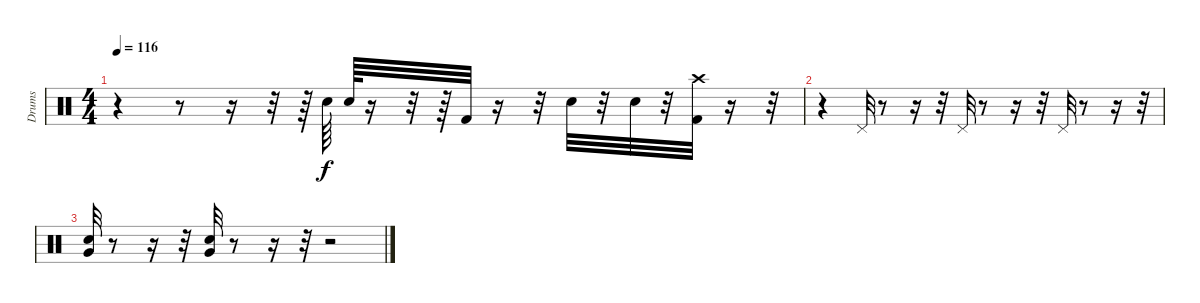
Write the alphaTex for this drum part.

\track ("Drums" "Drums") {instrument percussion}
\staff {score}
\articulation defaults
\ts (4 4)
\tempo 116
\clef neutral
\ks c
r.4{dy f} r.8 r.16 r.32 r.64 "Snare (hit) 2".64 "Snare (hit) 2".64 r.16 r.32 r.64 "Kick (hit) 2".32 r.16 r.32 "Snare (hit) 2".32 r.32 "Snare (hit) 2".32 r.32 ("Kick (hit) 2" "Crash high (hit)").32 r.16 r.32 |
r.4 "Pedal Hi-Hat (hit)".32 r.8 r.16 r.32 "Pedal Hi-Hat (hit)".32 r.8 r.16 r.32 "Pedal Hi-Hat (hit)".32 r.8 r.16 r.32 |
("Very Low Tom (hit)" "Snare (hit) 2").32 r.8 r.16 r.32 ("Very Low Tom (hit)" "Snare (hit) 2").32 r.8 r.16 r.32 r.2
